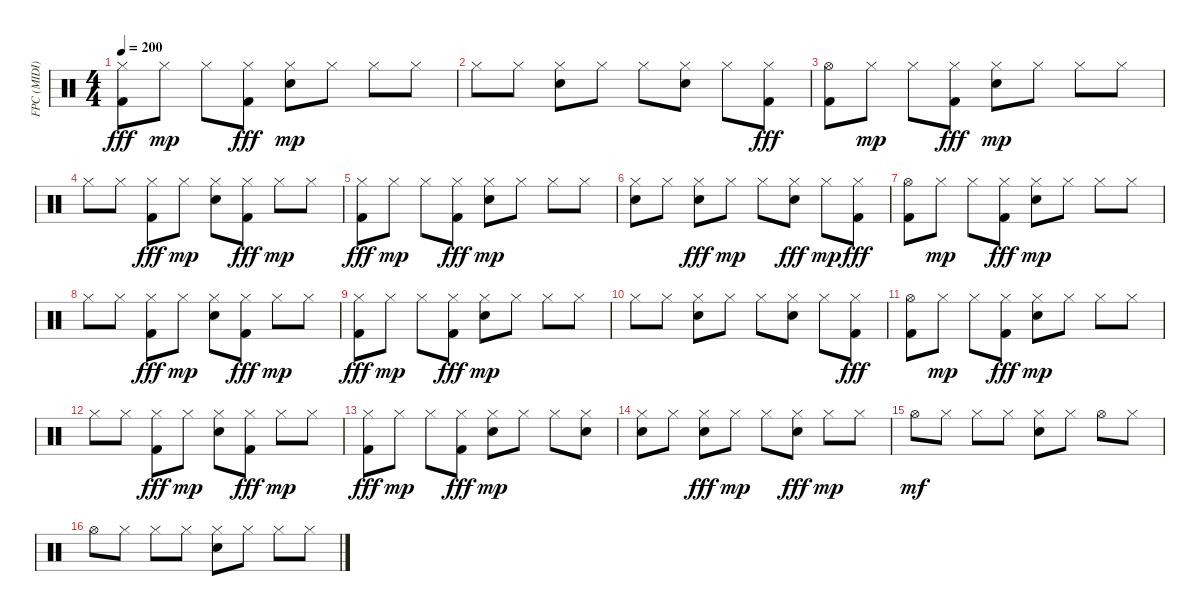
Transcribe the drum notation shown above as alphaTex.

\track ("FPC (MIDI)" "FPC (MIDI)") {instrument percussion}
\staff {score}
\articulation defaults
\ts (4 4)
\tempo 200
\clef neutral
\ks c
("Hi-Hat (closed)" "Kick (hit) 2").8{dy fff} "Hi-Hat (closed)".8{dy mp} "Hi-Hat (closed)".8 ("Hi-Hat (closed)" "Kick (hit) 2").8{dy fff} ("Hi-Hat (closed)" "Hand Clap (hit)").8{dy mp} "Hi-Hat (closed)".8 "Hi-Hat (closed)".8 "Hi-Hat (closed)".8 |
"Hi-Hat (closed)".8 "Hi-Hat (closed)".8 ("Hi-Hat (closed)" "Hand Clap (hit)").8 "Hi-Hat (closed)".8 "Hi-Hat (closed)".8 ("Hi-Hat (closed)" "Hand Clap (hit)").8 "Hi-Hat (closed)".8 ("Hi-Hat (closed)" "Kick (hit) 2").8{dy fff} |
("Hi-Hat (open)" "Kick (hit) 2").8 "Hi-Hat (closed)".8{dy mp} "Hi-Hat (closed)".8 ("Hi-Hat (closed)" "Kick (hit) 2").8{dy fff} ("Hi-Hat (closed)" "Hand Clap (hit)").8{dy mp} "Hi-Hat (closed)".8 "Hi-Hat (closed)".8 "Hi-Hat (closed)".8 |
"Hi-Hat (closed)".8 "Hi-Hat (closed)".8 ("Hi-Hat (closed)" "Kick (hit) 2").8{dy fff} "Hi-Hat (closed)".8{dy mp} ("Hi-Hat (closed)" "Hand Clap (hit)").8 ("Hi-Hat (closed)" "Kick (hit) 2").8{dy fff} "Hi-Hat (closed)".8{dy mp} "Hi-Hat (closed)".8 |
("Hi-Hat (closed)" "Kick (hit) 2").8{dy fff} "Hi-Hat (closed)".8{dy mp} "Hi-Hat (closed)".8 ("Hi-Hat (closed)" "Kick (hit) 2").8{dy fff} ("Hi-Hat (closed)" "Hand Clap (hit)").8{dy mp} "Hi-Hat (closed)".8 "Hi-Hat (closed)".8 "Hi-Hat (closed)".8 |
("Hi-Hat (closed)" "Hand Clap (hit)").8 "Hi-Hat (closed)".8 ("Hi-Hat (closed)" "Hand Clap (hit)").8{dy fff} "Hi-Hat (closed)".8{dy mp} "Hi-Hat (closed)".8 ("Hi-Hat (closed)" "Hand Clap (hit)").8{dy fff} "Hi-Hat (closed)".8{dy mp} ("Hi-Hat (closed)" "Kick (hit) 2").8{dy fff} |
("Hi-Hat (open)" "Kick (hit) 2").8 "Hi-Hat (closed)".8{dy mp} "Hi-Hat (closed)".8 ("Hi-Hat (closed)" "Kick (hit) 2").8{dy fff} ("Hi-Hat (closed)" "Hand Clap (hit)").8{dy mp} "Hi-Hat (closed)".8 "Hi-Hat (closed)".8 "Hi-Hat (closed)".8 |
"Hi-Hat (closed)".8 "Hi-Hat (closed)".8 ("Hi-Hat (closed)" "Kick (hit) 2").8{dy fff} "Hi-Hat (closed)".8{dy mp} ("Hi-Hat (closed)" "Hand Clap (hit)").8 ("Hi-Hat (closed)" "Kick (hit) 2").8{dy fff} "Hi-Hat (closed)".8{dy mp} "Hi-Hat (closed)".8 |
("Hi-Hat (closed)" "Kick (hit) 2").8{dy fff} "Hi-Hat (closed)".8{dy mp} "Hi-Hat (closed)".8 ("Hi-Hat (closed)" "Kick (hit) 2").8{dy fff} ("Hi-Hat (closed)" "Hand Clap (hit)").8{dy mp} "Hi-Hat (closed)".8 "Hi-Hat (closed)".8 "Hi-Hat (closed)".8 |
"Hi-Hat (closed)".8 "Hi-Hat (closed)".8 ("Hi-Hat (closed)" "Hand Clap (hit)").8 "Hi-Hat (closed)".8 "Hi-Hat (closed)".8 ("Hi-Hat (closed)" "Hand Clap (hit)").8 "Hi-Hat (closed)".8 ("Hi-Hat (closed)" "Kick (hit) 2").8{dy fff} |
("Hi-Hat (open)" "Kick (hit) 2").8 "Hi-Hat (closed)".8{dy mp} "Hi-Hat (closed)".8 ("Hi-Hat (closed)" "Kick (hit) 2").8{dy fff} ("Hi-Hat (closed)" "Hand Clap (hit)").8{dy mp} "Hi-Hat (closed)".8 "Hi-Hat (closed)".8 "Hi-Hat (closed)".8 |
"Hi-Hat (closed)".8 "Hi-Hat (closed)".8 ("Hi-Hat (closed)" "Kick (hit) 2").8{dy fff} "Hi-Hat (closed)".8{dy mp} ("Hi-Hat (closed)" "Hand Clap (hit)").8 ("Hi-Hat (closed)" "Kick (hit) 2").8{dy fff} "Hi-Hat (closed)".8{dy mp} "Hi-Hat (closed)".8 |
("Hi-Hat (closed)" "Kick (hit) 2").8{dy fff} "Hi-Hat (closed)".8{dy mp} "Hi-Hat (closed)".8 ("Hi-Hat (closed)" "Kick (hit) 2").8{dy fff} ("Hi-Hat (closed)" "Hand Clap (hit)").8{dy mp} "Hi-Hat (closed)".8 "Hi-Hat (closed)".8 ("Hi-Hat (closed)" "Hand Clap (hit)").8 |
("Hi-Hat (closed)" "Hand Clap (hit)").8 "Hi-Hat (closed)".8 ("Hi-Hat (closed)" "Hand Clap (hit)").8{dy fff} "Hi-Hat (closed)".8{dy mp} "Hi-Hat (closed)".8 ("Hi-Hat (closed)" "Hand Clap (hit)").8{dy fff} "Hi-Hat (closed)".8{dy mp} "Hi-Hat (closed)".8 |
"Hi-Hat (open)".8{dy mf} "Hi-Hat (closed)".8 "Hi-Hat (closed)".8 "Hi-Hat (closed)".8 ("Hi-Hat (closed)" "Hand Clap (hit)").8 "Hi-Hat (closed)".8 "Hi-Hat (open)".8 "Hi-Hat (closed)".8 |
"Hi-Hat (open)".8 "Hi-Hat (closed)".8 "Hi-Hat (closed)".8 "Hi-Hat (closed)".8 ("Hi-Hat (closed)" "Hand Clap (hit)").8 "Hi-Hat (closed)".8 "Hi-Hat (closed)".8 "Hi-Hat (closed)".8
